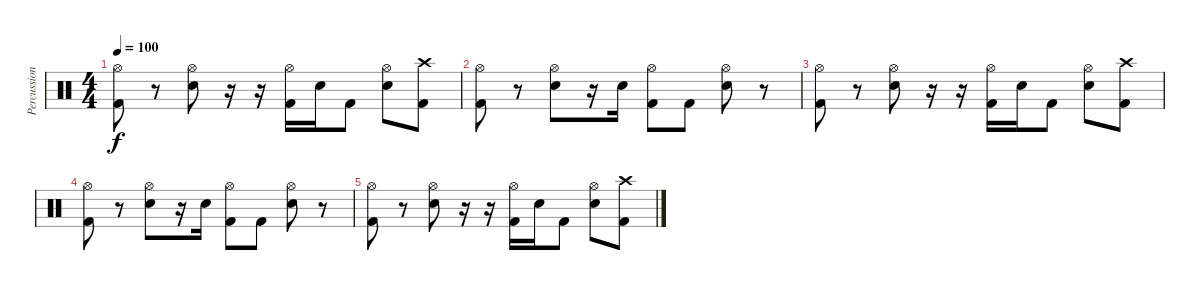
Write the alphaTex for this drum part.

\track ("Percussions" "Percussion") {instrument percussion}
\staff {score}
\articulation defaults
\ts (4 4)
\tempo 100
\clef neutral
\ks c
("Hi-Hat (open)" "Kick (hit) 2").8{dy f} r.8 ("Hi-Hat (open)" "Snare (hit) 2").8 r.16 r.16 ("Hi-Hat (open)" "Kick (hit) 2").16 "Snare (hit) 2".16 "Kick (hit) 2".8 ("Hi-Hat (open)" "Snare (hit) 2").8 ("Crash high (hit)" "Kick (hit) 2").8 |
("Hi-Hat (open)" "Kick (hit) 2").8 r.8 ("Hi-Hat (open)" "Snare (hit) 2").8 r.16 "Snare (hit) 2".16 ("Hi-Hat (open)" "Kick (hit) 2").8 "Kick (hit) 2".8 ("Hi-Hat (open)" "Snare (hit) 2").8 r.8 |
("Hi-Hat (open)" "Kick (hit) 2").8 r.8 ("Hi-Hat (open)" "Snare (hit) 2").8 r.16 r.16 ("Hi-Hat (open)" "Kick (hit) 2").16 "Snare (hit) 2".16 "Kick (hit) 2".8 ("Hi-Hat (open)" "Snare (hit) 2").8 ("Crash high (hit)" "Kick (hit) 2").8 |
("Hi-Hat (open)" "Kick (hit) 2").8 r.8 ("Hi-Hat (open)" "Snare (hit) 2").8 r.16 "Snare (hit) 2".16 ("Hi-Hat (open)" "Kick (hit) 2").8 "Kick (hit) 2".8 ("Hi-Hat (open)" "Snare (hit) 2").8 r.8 |
("Hi-Hat (open)" "Kick (hit) 2").8 r.8 ("Hi-Hat (open)" "Snare (hit) 2").8 r.16 r.16 ("Hi-Hat (open)" "Kick (hit) 2").16 "Snare (hit) 2".16 "Kick (hit) 2".8 ("Hi-Hat (open)" "Snare (hit) 2").8 ("Crash high (hit)" "Kick (hit) 2").8
